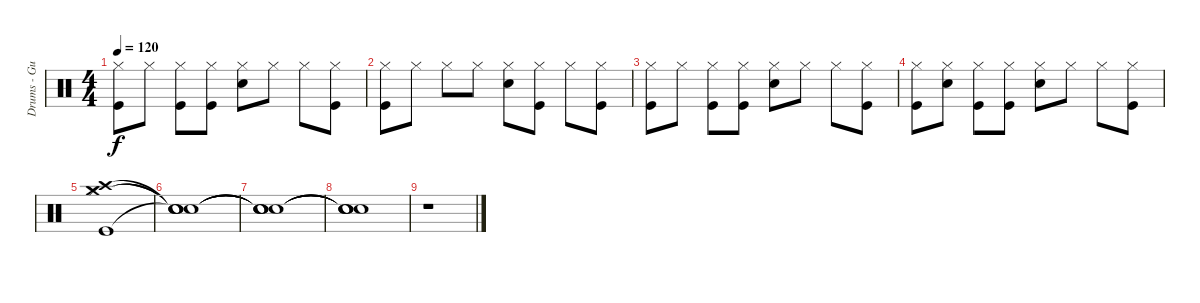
\track ("Drums - Gustav" "Drums - Gu") {instrument percussion}
\staff {score}
\articulation defaults
\ts (4 4)
\tempo 120
\clef neutral
\ks c
("Kick (hit)" "Hi-Hat (closed)").8{dy f} "Hi-Hat (closed)".8 ("Kick (hit)" "Hi-Hat (closed)").8 ("Kick (hit)" "Hi-Hat (closed)").8 ("Hi-Hat (closed)" "Snare (hit) 2").8 "Hi-Hat (closed)".8 "Hi-Hat (closed)".8 ("Kick (hit)" "Hi-Hat (closed)").8 |
("Kick (hit)" "Hi-Hat (closed)").8 "Hi-Hat (closed)".8 "Hi-Hat (closed)".8 "Hi-Hat (closed)".8 ("Hi-Hat (closed)" "Snare (hit) 2").8 ("Kick (hit)" "Hi-Hat (closed)").8 "Hi-Hat (closed)".8 ("Kick (hit)" "Hi-Hat (closed)").8 |
("Kick (hit)" "Hi-Hat (closed)").8 "Hi-Hat (closed)".8 ("Kick (hit)" "Hi-Hat (closed)").8 ("Kick (hit)" "Hi-Hat (closed)").8 ("Hi-Hat (closed)" "Snare (hit) 2").8 "Hi-Hat (closed)".8 "Hi-Hat (closed)".8 ("Kick (hit)" "Hi-Hat (closed)").8 |
("Kick (hit)" "Hi-Hat (closed)").8 ("Hi-Hat (closed)" "Snare (hit) 2").8 ("Kick (hit)" "Hi-Hat (closed)").8 ("Kick (hit)" "Hi-Hat (closed)").8 ("Hi-Hat (closed)" "Snare (hit) 2").8 "Hi-Hat (closed)".8 "Hi-Hat (closed)".8 ("Kick (hit)" "Hi-Hat (closed)").8 |
("Kick (hit)" "Hi-Hat (closed)" "Crash medium (hit)" "Crash high (hit)").1 |
("Snare (hit)"{t} "Snare (hit)"{t} "Snare (hit)"{t} "Snare (hit)"{t}).1 |
("Snare (hit)"{t} "Snare (hit)"{t} "Snare (hit)"{t} "Snare (hit)"{t}).1 |
("Snare (hit)"{t} "Snare (hit)"{t} "Snare (hit)"{t} "Snare (hit)"{t}).1{volume 0} |
r.1
